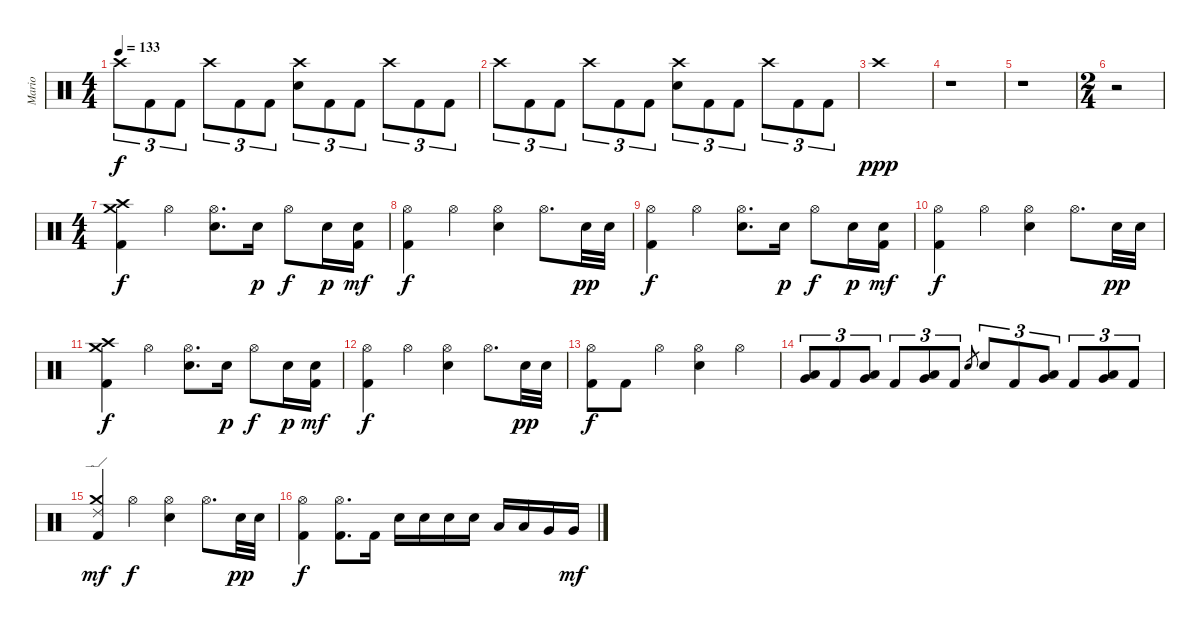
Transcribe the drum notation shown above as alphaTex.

\track ("Mario" "Mario") {instrument percussion}
\staff {score}
\articulation defaults
\ts (4 4)
\tempo 133
\clef neutral
\ks c "Crash high (hit)".8{tu (3 2) dy f} "Kick (hit) 2".8{tu (3 2)} "Kick (hit) 2".8{tu (3 2)} "Crash high (hit)".8{tu (3 2)} "Kick (hit) 2".8{tu (3 2)} "Kick (hit) 2".8{tu (3 2)}
("Crash high (hit)" "Electric Snare (hit)").8{tu (3 2)} "Kick (hit) 2".8{tu (3 2)} "Kick (hit) 2".8{tu (3 2)} "Crash high (hit)".8{tu (3 2)} "Kick (hit) 2".8{tu (3 2)} "Kick (hit) 2".8{tu (3 2)} |
"Crash high (hit)".8{tu (3 2)} "Kick (hit) 2".8{tu (3 2)} "Kick (hit) 2".8{tu (3 2)} "Crash high (hit)".8{tu (3 2)} "Kick (hit) 2".8{tu (3 2)} "Kick (hit) 2".8{tu (3 2)} ("Crash high (hit)" "Electric Snare (hit)").8{tu (3 2)} "Kick (hit) 2".8{tu (3 2)} "Kick (hit) 2".8{tu (3 2)} "Crash high (hit)".8{tu (3 2)} "Kick (hit) 2".8{tu (3 2)} "Kick (hit) 2".8{tu (3 2)} |
"Crash high (hit)".1{dy ppp} |
r.1 |
r.1 |
\ts (2 4)
r.2 |
\ts (4 4)
("Crash medium (hit)" "Crash high (hit)" "Kick (hit) 2").4{dy f} "Hi-Hat (open)".4 ("Hi-Hat (open)" "Electric Snare (hit)").8{d} "Electric Snare (hit)".16{dy p} "Hi-Hat (open)".8{dy f} "Electric Snare (hit)".16{dy p} ("Electric Snare (hit)" "Kick (hit) 2").16{dy mf} |
("Hi-Hat (open)" "Kick (hit) 2").4{dy f} "Hi-Hat (open)".4 ("Hi-Hat (open)" "Electric Snare (hit)").4 "Hi-Hat (open)".8{d} "Electric Snare (hit)".32{dy pp} "Electric Snare (hit)".32 |
("Hi-Hat (open)" "Kick (hit) 2").4{dy f} "Hi-Hat (open)".4 ("Hi-Hat (open)" "Electric Snare (hit)").8{d} "Electric Snare (hit)".16{dy p} "Hi-Hat (open)".8{dy f} "Electric Snare (hit)".16{dy p} ("Electric Snare (hit)" "Kick (hit) 2").16{dy mf} |
("Hi-Hat (open)" "Kick (hit) 2").4{dy f} "Hi-Hat (open)".4 ("Hi-Hat (open)" "Electric Snare (hit)").4 "Hi-Hat (open)".8{d} "Electric Snare (hit)".32{dy pp} "Electric Snare (hit)".32 |
("Crash medium (hit)" "Crash high (hit)" "Kick (hit) 2").4{dy f} "Hi-Hat (open)".4 ("Hi-Hat (open)" "Electric Snare (hit)").8{d} "Electric Snare (hit)".16{dy p} "Hi-Hat (open)".8{dy f} "Electric Snare (hit)".16{dy p} ("Electric Snare (hit)" "Kick (hit) 2").16{dy mf} |
("Hi-Hat (open)" "Kick (hit) 2").4{dy f} "Hi-Hat (open)".4 ("Hi-Hat (open)" "Electric Snare (hit)").4 "Hi-Hat (open)".8{d} "Electric Snare (hit)".32{dy pp} "Electric Snare (hit)".32 |
("Hi-Hat (open)" "Kick (hit) 2").8{dy f} "Kick (hit) 2".8 "Hi-Hat (open)".4 ("Hi-Hat (open)" "Electric Snare (hit)").4 "Hi-Hat (open)".4 |
("Low Tom (hit)" "Very Low Tom (hit)").8{tu (3 2)} "Kick (hit) 2".8{tu (3 2)} ("Low Tom (hit)" "Very Low Tom (hit)").8{tu (3 2)} "Kick (hit) 2".8{tu (3 2)} ("Very Low Tom (hit)" "Low Floor Tom (hit)").8{tu (3 2)} "Kick (hit) 2".8{tu (3 2)} "Electric Snare (hit)".8{gr} "Electric Snare (hit)".8{tu (3 2)} "Kick (hit) 2".8{tu (3 2)} ("Low Tom (hit)" "Very Low Tom (hit)").8{tu (3 2)} "Kick (hit) 2".8{tu (3 2)} ("Low Tom (hit)" "Very Low Tom (hit)").8{tu (3 2)} "Kick (hit) 2".8{tu (3 2)} |
("Crash medium (hit)" "Ride (edge) 2" "Kick (hit) 2").4{dy mf} "Hi-Hat (open)".4{dy f} ("Hi-Hat (open)" "Electric Snare (hit)").4 "Hi-Hat (open)".8{d} "Electric Snare (hit)".32{dy pp} "Electric Snare (hit)".32 |
("Hi-Hat (open)" "Kick (hit) 2").4{dy f} ("Hi-Hat (open)" "Kick (hit) 2").8{d} "Kick (hit) 2".16 "Electric Snare (hit)".16 "Electric Snare (hit)".16 "Electric Snare (hit)".16 "Electric Snare (hit)".16 "Low Tom (hit)".16 "Low Tom (hit)".16 "Very Low Tom (hit)".16 "Very Low Tom (hit)".16{dy mf}
